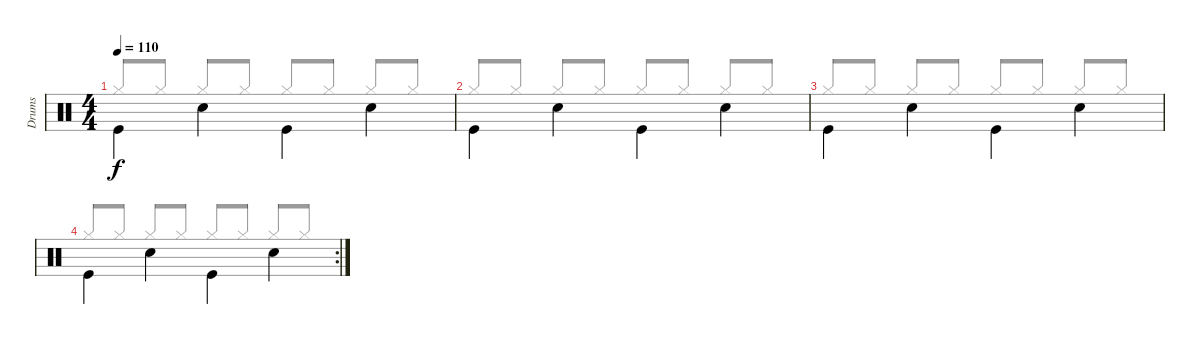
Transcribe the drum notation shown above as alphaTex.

\track ("Drums" "Drums") {instrument percussion}
\staff {score}
\articulation defaults
\voice
\ts (4 4)
\tempo 110
\clef neutral
\ks c "Kick (hit)".4{dy f beam Down} "Snare (hit) 2".4{beam Down} "Kick (hit)".4{beam Down} "Snare (hit) 2".4{beam Down}
|
"Kick (hit)".4{beam Down} "Snare (hit) 2".4{beam Down} "Kick (hit)".4{beam Down} "Snare (hit) 2".4{beam Down} |
"Kick (hit)".4{beam Down} "Snare (hit) 2".4{beam Down} "Kick (hit)".4{beam Down} "Snare (hit) 2".4{beam Down} |
\rc 2 "Kick (hit)".4{beam Down} "Snare (hit) 2".4{beam Down} "Kick (hit)".4{beam Down} "Snare (hit) 2".4{beam Down}
\voice
\clef neutral
\ottava regular
\simile none
\ks c "Hi-Hat (closed)".8{dy f beam Up} "Hi-Hat (closed)".8{beam Up} "Hi-Hat (closed)".8{beam Up} "Hi-Hat (closed)".8{beam Up} "Hi-Hat (closed)".8{beam Up} "Hi-Hat (closed)".8{beam Up} "Hi-Hat (closed)".8{beam Up} "Hi-Hat (closed)".8{beam Up}
|
"Hi-Hat (closed)".8{beam Up} "Hi-Hat (closed)".8{beam Up} "Hi-Hat (closed)".8{beam Up} "Hi-Hat (closed)".8{beam Up} "Hi-Hat (closed)".8{beam Up} "Hi-Hat (closed)".8{beam Up} "Hi-Hat (closed)".8{beam Up} "Hi-Hat (closed)".8{beam Up} |
"Hi-Hat (closed)".8{beam Up} "Hi-Hat (closed)".8{beam Up} "Hi-Hat (closed)".8{beam Up} "Hi-Hat (closed)".8{beam Up} "Hi-Hat (closed)".8{beam Up} "Hi-Hat (closed)".8{beam Up} "Hi-Hat (closed)".8{beam Up} "Hi-Hat (closed)".8{beam Up} |
"Hi-Hat (closed)".8{beam Up} "Hi-Hat (closed)".8{beam Up} "Hi-Hat (closed)".8{beam Up} "Hi-Hat (closed)".8{beam Up} "Hi-Hat (closed)".8{beam Up} "Hi-Hat (closed)".8{beam Up} "Hi-Hat (closed)".8{beam Up} "Hi-Hat (closed)".8{beam Up}
